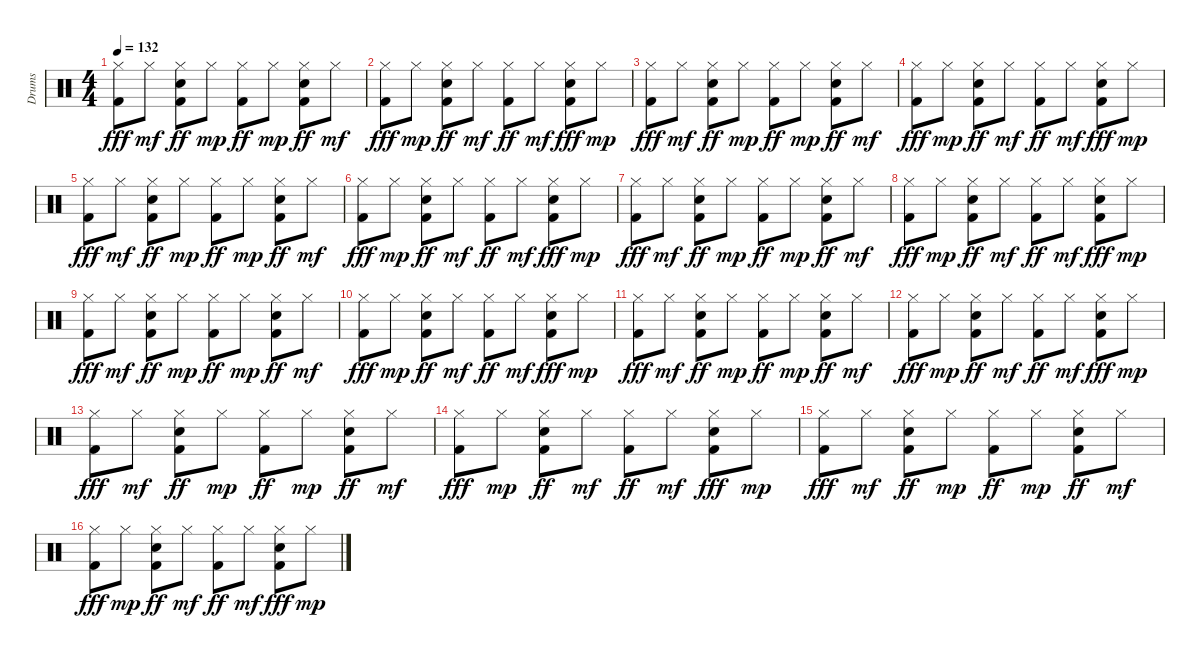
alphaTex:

\track ("Drums" "Drums") {instrument percussion}
\staff {score}
\articulation defaults
\ts (4 4)
\tempo 132
\clef neutral
\ks c
("Kick (hit) 2" "Hi-Hat (closed)").8{dy fff} "Hi-Hat (closed)".8{dy mf} ("Snare (hit) 2" "Kick (hit) 2" "Hi-Hat (closed)").8{dy ff} "Hi-Hat (closed)".8{dy mp} ("Hi-Hat (closed)" "Kick (hit) 2").8{dy ff} "Hi-Hat (closed)".8{dy mp} ("Hi-Hat (closed)" "Kick (hit) 2" "Snare (hit) 2").8{dy ff} "Hi-Hat (closed)".8{dy mf} |
("Hi-Hat (closed)" "Kick (hit) 2").8{dy fff} "Hi-Hat (closed)".8{dy mp} ("Hi-Hat (closed)" "Kick (hit) 2" "Snare (hit) 2").8{dy ff} "Hi-Hat (closed)".8{dy mf} ("Hi-Hat (closed)" "Kick (hit) 2").8{dy ff} "Hi-Hat (closed)".8{dy mf} ("Snare (hit) 2" "Kick (hit) 2" "Hi-Hat (closed)").8{dy fff} "Hi-Hat (closed)".8{dy mp} |
("Hi-Hat (closed)" "Kick (hit) 2").8{dy fff} "Hi-Hat (closed)".8{dy mf} ("Snare (hit) 2" "Kick (hit) 2" "Hi-Hat (closed)").8{dy ff} "Hi-Hat (closed)".8{dy mp} ("Kick (hit) 2" "Hi-Hat (closed)").8{dy ff} "Hi-Hat (closed)".8{dy mp} ("Hi-Hat (closed)" "Snare (hit) 2" "Kick (hit) 2").8{dy ff} "Hi-Hat (closed)".8{dy mf} |
("Kick (hit) 2" "Hi-Hat (closed)").8{dy fff} "Hi-Hat (closed)".8{dy mp} ("Hi-Hat (closed)" "Snare (hit) 2" "Kick (hit) 2").8{dy ff} "Hi-Hat (closed)".8{dy mf} ("Hi-Hat (closed)" "Kick (hit) 2").8{dy ff} "Hi-Hat (closed)".8{dy mf} ("Snare (hit) 2" "Hi-Hat (closed)" "Kick (hit) 2").8{dy fff} "Hi-Hat (closed)".8{dy mp} |
("Kick (hit) 2" "Hi-Hat (closed)").8{dy fff} "Hi-Hat (closed)".8{dy mf} ("Kick (hit) 2" "Hi-Hat (closed)" "Snare (hit) 2").8{dy ff} "Hi-Hat (closed)".8{dy mp} ("Hi-Hat (closed)" "Kick (hit) 2").8{dy ff} "Hi-Hat (closed)".8{dy mp} ("Snare (hit) 2" "Kick (hit) 2" "Hi-Hat (closed)").8{dy ff} "Hi-Hat (closed)".8{dy mf} |
("Hi-Hat (closed)" "Kick (hit) 2").8{dy fff} "Hi-Hat (closed)".8{dy mp} ("Hi-Hat (closed)" "Snare (hit) 2" "Kick (hit) 2").8{dy ff} "Hi-Hat (closed)".8{dy mf} ("Kick (hit) 2" "Hi-Hat (closed)").8{dy ff} "Hi-Hat (closed)".8{dy mf} ("Kick (hit) 2" "Snare (hit) 2" "Hi-Hat (closed)").8{dy fff} "Hi-Hat (closed)".8{dy mp} |
("Hi-Hat (closed)" "Kick (hit) 2").8{dy fff} "Hi-Hat (closed)".8{dy mf} ("Hi-Hat (closed)" "Snare (hit) 2" "Kick (hit) 2").8{dy ff} "Hi-Hat (closed)".8{dy mp} ("Hi-Hat (closed)" "Kick (hit) 2").8{dy ff} "Hi-Hat (closed)".8{dy mp} ("Snare (hit) 2" "Hi-Hat (closed)" "Kick (hit) 2").8{dy ff} "Hi-Hat (closed)".8{dy mf} |
("Hi-Hat (closed)" "Kick (hit) 2").8{dy fff} "Hi-Hat (closed)".8{dy mp} ("Kick (hit) 2" "Hi-Hat (closed)" "Snare (hit) 2").8{dy ff} "Hi-Hat (closed)".8{dy mf} ("Hi-Hat (closed)" "Kick (hit) 2").8{dy ff} "Hi-Hat (closed)".8{dy mf} ("Snare (hit) 2" "Kick (hit) 2" "Hi-Hat (closed)").8{dy fff} "Hi-Hat (closed)".8{dy mp} |
("Kick (hit) 2" "Hi-Hat (closed)").8{dy fff} "Hi-Hat (closed)".8{dy mf} ("Kick (hit) 2" "Hi-Hat (closed)" "Snare (hit) 2").8{dy ff} "Hi-Hat (closed)".8{dy mp} ("Kick (hit) 2" "Hi-Hat (closed)").8{dy ff} "Hi-Hat (closed)".8{dy mp} ("Hi-Hat (closed)" "Snare (hit) 2" "Kick (hit) 2").8{dy ff} "Hi-Hat (closed)".8{dy mf} |
("Hi-Hat (closed)" "Kick (hit) 2").8{dy fff} "Hi-Hat (closed)".8{dy mp} ("Snare (hit) 2" "Kick (hit) 2" "Hi-Hat (closed)").8{dy ff} "Hi-Hat (closed)".8{dy mf} ("Kick (hit) 2" "Hi-Hat (closed)").8{dy ff} "Hi-Hat (closed)".8{dy mf} ("Snare (hit) 2" "Hi-Hat (closed)" "Kick (hit) 2").8{dy fff} "Hi-Hat (closed)".8{dy mp} |
("Kick (hit) 2" "Hi-Hat (closed)").8{dy fff} "Hi-Hat (closed)".8{dy mf} ("Hi-Hat (closed)" "Snare (hit) 2" "Kick (hit) 2").8{dy ff} "Hi-Hat (closed)".8{dy mp} ("Kick (hit) 2" "Hi-Hat (closed)").8{dy ff} "Hi-Hat (closed)".8{dy mp} ("Snare (hit) 2" "Hi-Hat (closed)" "Kick (hit) 2").8{dy ff} "Hi-Hat (closed)".8{dy mf} |
("Kick (hit) 2" "Hi-Hat (closed)").8{dy fff} "Hi-Hat (closed)".8{dy mp} ("Snare (hit) 2" "Kick (hit) 2" "Hi-Hat (closed)").8{dy ff} "Hi-Hat (closed)".8{dy mf} ("Hi-Hat (closed)" "Kick (hit) 2").8{dy ff} "Hi-Hat (closed)".8{dy mf} ("Kick (hit) 2" "Hi-Hat (closed)" "Snare (hit) 2").8{dy fff} "Hi-Hat (closed)".8{dy mp} |
("Hi-Hat (closed)" "Kick (hit) 2").8{dy fff} "Hi-Hat (closed)".8{dy mf} ("Hi-Hat (closed)" "Kick (hit) 2" "Snare (hit) 2").8{dy ff} "Hi-Hat (closed)".8{dy mp} ("Kick (hit) 2" "Hi-Hat (closed)").8{dy ff} "Hi-Hat (closed)".8{dy mp} ("Snare (hit) 2" "Hi-Hat (closed)" "Kick (hit) 2").8{dy ff} "Hi-Hat (closed)".8{dy mf} |
("Kick (hit) 2" "Hi-Hat (closed)").8{dy fff} "Hi-Hat (closed)".8{dy mp} ("Kick (hit) 2" "Snare (hit) 2" "Hi-Hat (closed)").8{dy ff} "Hi-Hat (closed)".8{dy mf} ("Hi-Hat (closed)" "Kick (hit) 2").8{dy ff} "Hi-Hat (closed)".8{dy mf} ("Hi-Hat (closed)" "Kick (hit) 2" "Snare (hit) 2").8{dy fff} "Hi-Hat (closed)".8{dy mp} |
("Hi-Hat (closed)" "Kick (hit) 2").8{dy fff} "Hi-Hat (closed)".8{dy mf} ("Hi-Hat (closed)" "Kick (hit) 2" "Snare (hit) 2").8{dy ff} "Hi-Hat (closed)".8{dy mp} ("Hi-Hat (closed)" "Kick (hit) 2").8{dy ff} "Hi-Hat (closed)".8{dy mp} ("Snare (hit) 2" "Hi-Hat (closed)" "Kick (hit) 2").8{dy ff} "Hi-Hat (closed)".8{dy mf} |
("Kick (hit) 2" "Hi-Hat (closed)").8{dy fff} "Hi-Hat (closed)".8{dy mp} ("Kick (hit) 2" "Snare (hit) 2" "Hi-Hat (closed)").8{dy ff} "Hi-Hat (closed)".8{dy mf} ("Hi-Hat (closed)" "Kick (hit) 2").8{dy ff} "Hi-Hat (closed)".8{dy mf} ("Snare (hit) 2" "Kick (hit) 2" "Hi-Hat (closed)").8{dy fff} "Hi-Hat (closed)".8{dy mp}
